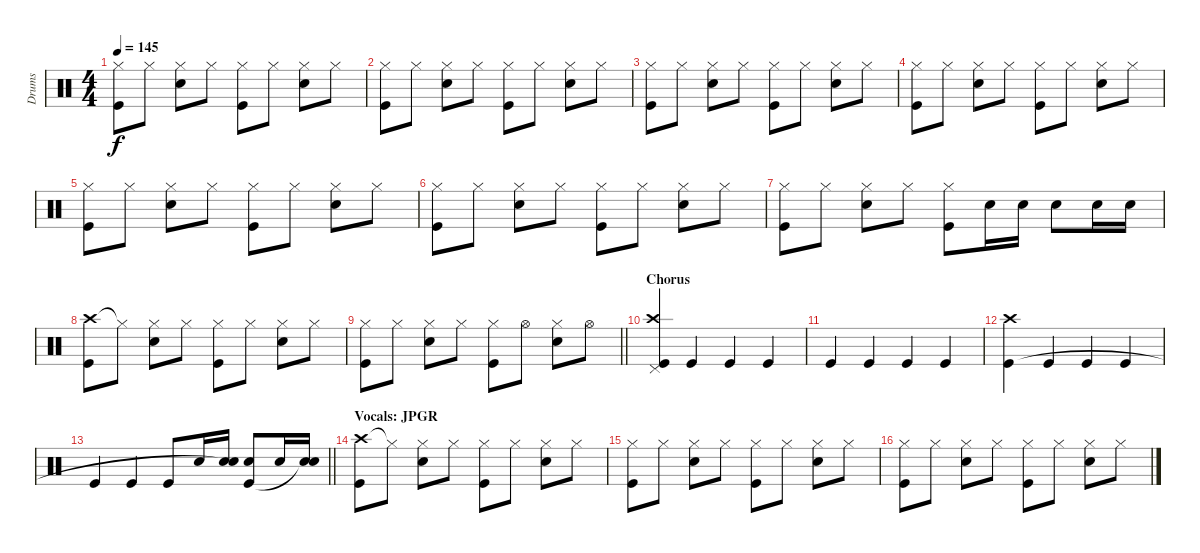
\track ("Drums" "Drums") {instrument percussion}
\staff {score}
\articulation defaults
\ts (4 4)
\tempo 145
\clef neutral
\ks c
("Hi-Hat (closed)" "Kick (hit)").8{dy f} "Hi-Hat (closed)".8 ("Hi-Hat (closed)" "Electric Snare (hit)").8 "Hi-Hat (closed)".8 ("Hi-Hat (closed)" "Kick (hit)").8 "Hi-Hat (closed)".8 ("Hi-Hat (closed)" "Electric Snare (hit)").8 "Hi-Hat (closed)".8 |
("Hi-Hat (closed)" "Kick (hit)").8 "Hi-Hat (closed)".8 ("Hi-Hat (closed)" "Electric Snare (hit)").8 "Hi-Hat (closed)".8 ("Hi-Hat (closed)" "Kick (hit)").8 "Hi-Hat (closed)".8 ("Hi-Hat (closed)" "Electric Snare (hit)").8 "Hi-Hat (closed)".8 |
("Hi-Hat (closed)" "Kick (hit)").8 "Hi-Hat (closed)".8 ("Hi-Hat (closed)" "Electric Snare (hit)").8 "Hi-Hat (closed)".8 ("Hi-Hat (closed)" "Kick (hit)").8 "Hi-Hat (closed)".8 ("Hi-Hat (closed)" "Electric Snare (hit)").8 "Hi-Hat (closed)".8 |
("Hi-Hat (closed)" "Kick (hit)").8 "Hi-Hat (closed)".8 ("Hi-Hat (closed)" "Electric Snare (hit)").8 "Hi-Hat (closed)".8 ("Hi-Hat (closed)" "Kick (hit)").8 "Hi-Hat (closed)".8 ("Hi-Hat (closed)" "Electric Snare (hit)").8 "Hi-Hat (closed)".8 |
("Hi-Hat (closed)" "Kick (hit)").8 "Hi-Hat (closed)".8 ("Hi-Hat (closed)" "Electric Snare (hit)").8 "Hi-Hat (closed)".8 ("Hi-Hat (closed)" "Kick (hit)").8 "Hi-Hat (closed)".8 ("Hi-Hat (closed)" "Electric Snare (hit)").8 "Hi-Hat (closed)".8 |
("Hi-Hat (closed)" "Kick (hit)").8 "Hi-Hat (closed)".8 ("Hi-Hat (closed)" "Electric Snare (hit)").8 "Hi-Hat (closed)".8 ("Hi-Hat (closed)" "Kick (hit)").8 "Hi-Hat (closed)".8 ("Hi-Hat (closed)" "Electric Snare (hit)").8 "Hi-Hat (closed)".8 |
("Hi-Hat (closed)" "Kick (hit)").8 "Hi-Hat (closed)".8 ("Hi-Hat (closed)" "Electric Snare (hit)").8 "Hi-Hat (closed)".8 ("Hi-Hat (closed)" "Kick (hit)").8 "Electric Snare (hit)".16 "Electric Snare (hit)".16 "Electric Snare (hit)".8 "Electric Snare (hit)".16 "Electric Snare (hit)".16 |
("Crash high (hit)" "Kick (hit)").8 "Hi-Hat (closed)"{t}.8 ("Hi-Hat (closed)" "Electric Snare (hit)").8 "Hi-Hat (closed)".8 ("Hi-Hat (closed)" "Kick (hit)").8 "Hi-Hat (closed)".8 ("Hi-Hat (closed)" "Electric Snare (hit)").8 "Hi-Hat (closed)".8 |
\barLineRight lightlight
("Hi-Hat (closed)" "Kick (hit)").8 "Hi-Hat (closed)".8 ("Hi-Hat (closed)" "Electric Snare (hit)").8 "Hi-Hat (closed)".8 ("Hi-Hat (closed)" "Kick (hit)").8 "Hi-Hat (open)".8 ("Hi-Hat (closed)" "Electric Snare (hit)").8 "Hi-Hat (open)".8 |
\section ("" "Chorus")
("Pedal Hi-Hat (hit)" "Crash high (hit)" "Kick (hit)").4 "Kick (hit)".4 "Kick (hit)".4 "Kick (hit)".4 |
"Kick (hit)".4 "Kick (hit)".4 "Kick (hit)".4 "Kick (hit)".4 |
("Crash high (hit)" "Kick (hit)").4 "Kick (hit)".4 "Kick (hit)".4 "Kick (hit)".4 |
\barLineRight lightlight "Kick (hit)".4 "Kick (hit)".4 "Kick (hit)".8 "Electric Snare (hit)".16
("Electric Snare (hit)" "Snare (hit)"{t}).16 ("Electric Snare (hit)" "Kick (hit)").8 "Electric Snare (hit)".16 ("Electric Snare (hit)" "Snare (hit)"{t}).16 |
\section ("" "Vocals: JPGR")
("Crash high (hit)" "Kick (hit)").8 "Hi-Hat (closed)"{t}.8 ("Hi-Hat (closed)" "Electric Snare (hit)").8 "Hi-Hat (closed)".8 ("Hi-Hat (closed)" "Kick (hit)").8 "Hi-Hat (closed)".8 ("Hi-Hat (closed)" "Electric Snare (hit)").8 "Hi-Hat (closed)".8 |
("Hi-Hat (closed)" "Kick (hit)").8 "Hi-Hat (closed)".8 ("Hi-Hat (closed)" "Electric Snare (hit)").8 "Hi-Hat (closed)".8 ("Hi-Hat (closed)" "Kick (hit)").8 "Hi-Hat (closed)".8 ("Hi-Hat (closed)" "Electric Snare (hit)").8 "Hi-Hat (closed)".8 |
("Hi-Hat (closed)" "Kick (hit)").8 "Hi-Hat (closed)".8 ("Hi-Hat (closed)" "Electric Snare (hit)").8 "Hi-Hat (closed)".8 ("Hi-Hat (closed)" "Kick (hit)").8 "Hi-Hat (closed)".8 ("Hi-Hat (closed)" "Electric Snare (hit)").8 "Hi-Hat (closed)".8
